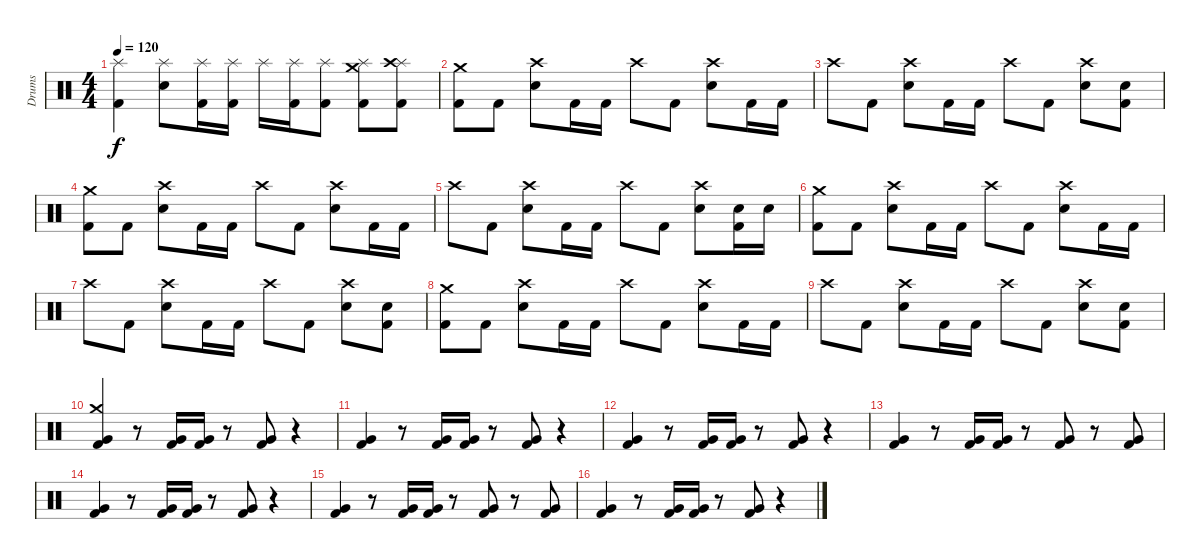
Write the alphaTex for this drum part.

\track ("Drums" "Drums") {instrument percussion}
\staff {score}
\articulation defaults
\ts (4 4)
\tempo 120
\clef neutral
\ks c
("Kick (hit) 2" "Splash (hit)").4{dy f} ("Snare (hit) 2" "Splash (hit)").8 ("Kick (hit) 2" "Splash (hit)").16 ("Kick (hit) 2" "Splash (hit)").16 "Splash (hit)".16 ("Kick (hit) 2" "Splash (hit)").16 ("Kick (hit) 2" "Splash (hit)").8 ("Kick (hit) 2" "Splash (hit)" "Crash medium (hit)").8 ("Kick (hit) 2" "Splash (hit)" "Crash high (hit)").8 |
("Kick (hit) 2" "Crash medium (hit)").8 "Kick (hit) 2".8 ("Snare (hit) 2" "Crash high (hit)").8 "Kick (hit) 2".16 "Kick (hit) 2".16 "Crash high (hit)".8 "Kick (hit) 2".8 ("Snare (hit) 2" "Crash high (hit)").8 "Kick (hit) 2".16 "Kick (hit) 2".16 |
"Crash high (hit)".8 "Kick (hit) 2".8 ("Snare (hit) 2" "Crash high (hit)").8 "Kick (hit) 2".16 "Kick (hit) 2".16 "Crash high (hit)".8 "Kick (hit) 2".8 ("Snare (hit) 2" "Crash high (hit)").8 ("Kick (hit) 2" "Snare (hit) 2").8 |
("Kick (hit) 2" "Crash medium (hit)").8 "Kick (hit) 2".8 ("Snare (hit) 2" "Crash high (hit)").8 "Kick (hit) 2".16 "Kick (hit) 2".16 "Crash high (hit)".8 "Kick (hit) 2".8 ("Snare (hit) 2" "Crash high (hit)").8 "Kick (hit) 2".16 "Kick (hit) 2".16 |
"Crash high (hit)".8 "Kick (hit) 2".8 ("Snare (hit) 2" "Crash high (hit)").8 "Kick (hit) 2".16 "Kick (hit) 2".16 "Crash high (hit)".8 "Kick (hit) 2".8 ("Snare (hit) 2" "Crash high (hit)").8 ("Kick (hit) 2" "Snare (hit) 2").16 "Snare (hit) 2".16 |
("Kick (hit) 2" "Crash medium (hit)").8 "Kick (hit) 2".8 ("Snare (hit) 2" "Crash high (hit)").8 "Kick (hit) 2".16 "Kick (hit) 2".16 "Crash high (hit)".8 "Kick (hit) 2".8 ("Snare (hit) 2" "Crash high (hit)").8 "Kick (hit) 2".16 "Kick (hit) 2".16 |
"Crash high (hit)".8 "Kick (hit) 2".8 ("Snare (hit) 2" "Crash high (hit)").8 "Kick (hit) 2".16 "Kick (hit) 2".16 "Crash high (hit)".8 "Kick (hit) 2".8 ("Snare (hit) 2" "Crash high (hit)").8 ("Kick (hit) 2" "Snare (hit) 2").8 |
("Kick (hit) 2" "Crash medium (hit)").8 "Kick (hit) 2".8 ("Snare (hit) 2" "Crash high (hit)").8 "Kick (hit) 2".16 "Kick (hit) 2".16 "Crash high (hit)".8 "Kick (hit) 2".8 ("Snare (hit) 2" "Crash high (hit)").8 "Kick (hit) 2".16 "Kick (hit) 2".16 |
"Crash high (hit)".8 "Kick (hit) 2".8 ("Snare (hit) 2" "Crash high (hit)").8 "Kick (hit) 2".16 "Kick (hit) 2".16 "Crash high (hit)".8 "Kick (hit) 2".8 ("Snare (hit) 2" "Crash high (hit)").8 ("Kick (hit) 2" "Snare (hit) 2").8 |
("Kick (hit) 2" "Very Low Tom (hit)" "Crash medium (hit)").4 r.8 ("Kick (hit) 2" "Very Low Tom (hit)").16 ("Kick (hit) 2" "Very Low Tom (hit)").16 r.8 ("Kick (hit) 2" "Very Low Tom (hit)").8 r.4 |
("Kick (hit) 2" "Very Low Tom (hit)").4 r.8 ("Kick (hit) 2" "Very Low Tom (hit)").16 ("Kick (hit) 2" "Very Low Tom (hit)").16 r.8 ("Kick (hit) 2" "Very Low Tom (hit)").8 r.4 |
("Kick (hit) 2" "Very Low Tom (hit)").4 r.8 ("Kick (hit) 2" "Very Low Tom (hit)").16 ("Kick (hit) 2" "Very Low Tom (hit)").16 r.8 ("Kick (hit) 2" "Very Low Tom (hit)").8 r.4 |
("Kick (hit) 2" "Very Low Tom (hit)").4 r.8 ("Kick (hit) 2" "Very Low Tom (hit)").16 ("Kick (hit) 2" "Very Low Tom (hit)").16 r.8 ("Kick (hit) 2" "Very Low Tom (hit)").8 r.8 ("Kick (hit) 2" "Very Low Tom (hit)").8 |
("Kick (hit) 2" "Very Low Tom (hit)").4 r.8 ("Kick (hit) 2" "Very Low Tom (hit)").16 ("Kick (hit) 2" "Very Low Tom (hit)").16 r.8 ("Kick (hit) 2" "Very Low Tom (hit)").8 r.4 |
("Kick (hit) 2" "Very Low Tom (hit)").4 r.8 ("Kick (hit) 2" "Very Low Tom (hit)").16 ("Kick (hit) 2" "Very Low Tom (hit)").16 r.8 ("Kick (hit) 2" "Very Low Tom (hit)").8 r.8 ("Kick (hit) 2" "Very Low Tom (hit)").8 |
("Kick (hit) 2" "Very Low Tom (hit)").4 r.8 ("Kick (hit) 2" "Very Low Tom (hit)").16 ("Kick (hit) 2" "Very Low Tom (hit)").16 r.8 ("Kick (hit) 2" "Very Low Tom (hit)").8 r.4
